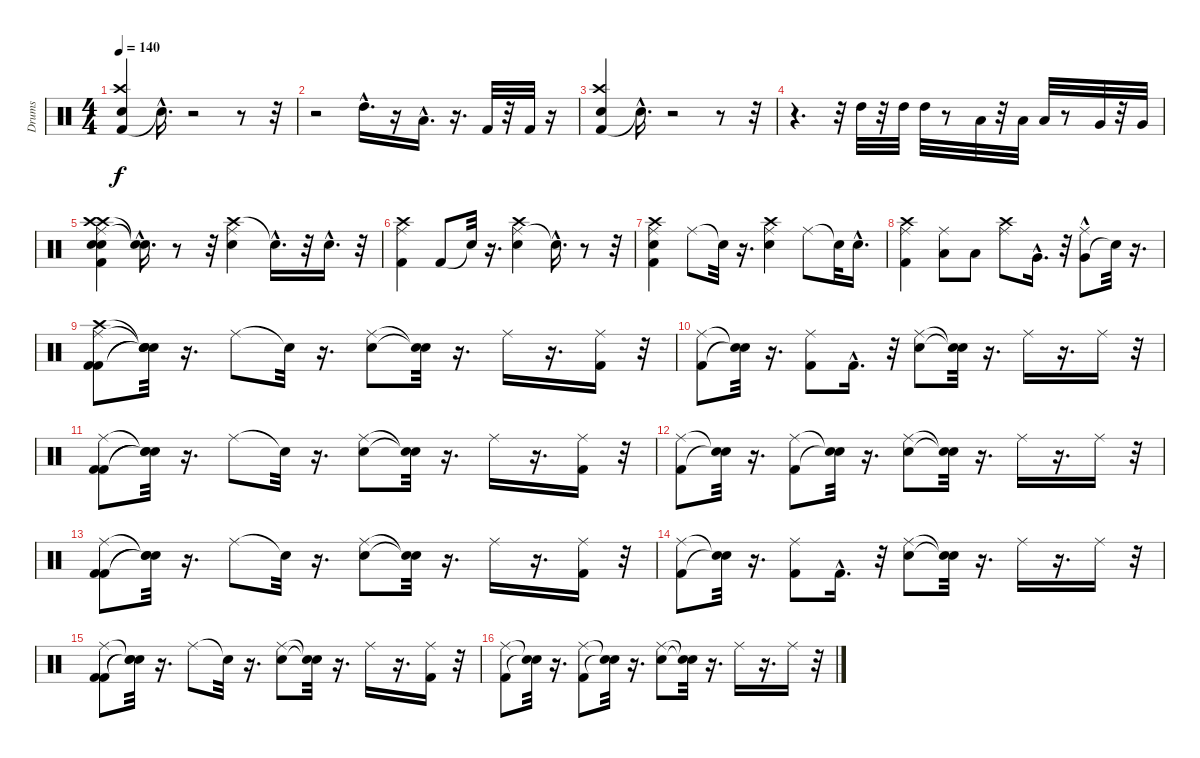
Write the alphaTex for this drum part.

\track ("Drums" "Drums") {instrument percussion}
\staff {score}
\articulation defaults
\ts (4 4)
\tempo 140
\clef neutral
\ks c
("Kick (hit) 2" "Crash high (hit)" "Snare (hit) 2").4{dy f} "Snare (hit)"{hac t}.16{d} r.2 r.8 r.32 |
r.2 "High Tom (hit)"{hac}.16{d} r.16 "Low Tom (hit)"{hac}.16{d} r.16{d} "Kick (hit) 2".32 r.32 "Kick (hit) 2".32 r.16 |
("Kick (hit) 2" "Crash high (hit)" "Snare (hit) 2").4 "Snare (hit)"{hac t}.16{d} r.2 r.8 r.32 |
r.4{d} r.32 "High Tom (hit)".32 r.32 "High Tom (hit)".32 "High Tom (hit)".32 r.8 "Low Tom (hit)".32 r.32 "Low Tom (hit)".32 "Low Tom (hit)".32 r.8 "Very Low Tom (hit)".32 r.32 "Very Low Tom (hit)".32 |
("Ride (middle)" "Crash high (hit)" "Snare (hit) 2" "Snare (hit) 2" "Kick (hit) 2" "Crash high (hit)").4 ("Snare (hit)"{hac t} "Snare (hit)"{hac t}).16{d} r.8 r.32 ("Crash high (hit)" "Ride (middle)" "Snare (hit) 2").4 "Snare (hit)"{hac t}.16{d} r.32 "Snare (hit) 2"{hac}.16{d} r.32 |
("Kick (hit) 2" "Crash high (hit)" "Ride (middle)").4 "Kick (hit) 2".8 "Snare (hit)"{t}.32 r.16{d} ("Ride (middle)" "Snare (hit) 2" "Crash high (hit)").4 "Snare (hit)"{hac t}.16{d} r.8 r.32 |
("Ride (middle)" "Kick (hit) 2" "Crash high (hit)" "Snare (hit) 2").4 "Ride (middle)".8 "Snare (hit)"{t}.32 r.16{d} ("Ride (middle)" "Crash high (hit)" "Snare (hit) 2").4 "Ride (middle)".8 "Snare (hit)"{t}.32 "Snare (hit) 2"{hac}.16{d} |
("Kick (hit) 2" "Crash high (hit)" "Ride (middle)").4 ("Low Tom (hit)" "Ride (middle)").8 "Low Tom (hit)".8 ("Ride (middle)" "Crash high (hit)").8 "Very Low Tom (hit)"{hac}.16{d} r.32 ("Very Low Tom (hit)"{hac} "Ride (middle)").8 "Snare (hit)"{t}.32 r.16{d} |
("Kick (hit) 2" "Kick (hit) 2" "Ride (middle)" "Crash high (hit)").8 ("Snare (hit)"{t} "Snare (hit)"{t} "Snare (hit)"{t} "Snare (hit)"{t}).32 r.16{d} "Ride (middle)".8 "Snare (hit)"{t}.32 r.16{d} ("Snare (hit) 2" "Ride (middle)").8 ("Snare (hit)"{t} "Snare (hit)"{t}).32 r.16{d} "Ride (middle)".16 r.16{d} ("Kick (hit) 2" "Ride (middle)").16 r.32 |
("Ride (middle)" "Kick (hit) 2").8 ("Snare (hit)"{t} "Snare (hit)"{t}).32 r.16{d} ("Ride (middle)" "Kick (hit) 2").8 "Kick (hit) 2"{hac}.16{d} r.32 ("Snare (hit) 2" "Ride (middle)").8 ("Snare (hit)"{t} "Snare (hit)"{t}).32 r.16{d} "Ride (middle)".16 r.16{d} "Ride (middle)".16 r.32 |
("Ride (middle)" "Kick (hit) 2" "Kick (hit) 2").8 ("Snare (hit)"{t} "Snare (hit)"{t} "Snare (hit)"{t}).32 r.16{d} "Ride (middle)".8 "Snare (hit)"{t}.32 r.16{d} ("Snare (hit) 2" "Ride (middle)").8 ("Snare (hit)"{t} "Snare (hit)"{t}).32 r.16{d} "Ride (middle)".16 r.16{d} ("Ride (middle)" "Kick (hit) 2").16 r.32 |
("Ride (middle)" "Kick (hit) 2").8 ("Snare (hit)"{t} "Snare (hit)"{t}).32 r.16{d} ("Ride (middle)" "Kick (hit) 2").8 ("Snare (hit)"{t} "Snare (hit)"{t}).32 r.16{d} ("Ride (middle)" "Snare (hit) 2").8 ("Snare (hit)"{t} "Snare (hit)"{t}).32 r.16{d} "Ride (middle)".16 r.16{d} "Ride (middle)".16 r.32 |
("Kick (hit) 2" "Ride (middle)" "Kick (hit) 2").8 ("Snare (hit)"{t} "Snare (hit)"{t} "Snare (hit)"{t}).32 r.16{d} "Ride (middle)".8 "Snare (hit)"{t}.32 r.16{d} ("Ride (middle)" "Snare (hit) 2").8 ("Snare (hit)"{t} "Snare (hit)"{t}).32 r.16{d} "Ride (middle)".16 r.16{d} ("Ride (middle)" "Kick (hit) 2").16 r.32 |
("Kick (hit) 2" "Ride (middle)").8 ("Snare (hit)"{t} "Snare (hit)"{t}).32 r.16{d} ("Ride (middle)" "Kick (hit) 2").8 "Kick (hit) 2"{hac}.16{d} r.32 ("Snare (hit) 2" "Ride (middle)").8 ("Snare (hit)"{t} "Snare (hit)"{t}).32 r.16{d} "Ride (middle)".16 r.16{d} "Ride (middle)".16 r.32 |
("Kick (hit) 2" "Ride (middle)" "Kick (hit) 2").8 ("Snare (hit)"{t} "Snare (hit)"{t} "Snare (hit)"{t}).32 r.16{d} "Ride (middle)".8 "Snare (hit)"{t}.32 r.16{d} ("Snare (hit) 2" "Ride (middle)").8 ("Snare (hit)"{t} "Snare (hit)"{t}).32 r.16{d} "Ride (middle)".16 r.16{d} ("Kick (hit) 2" "Ride (middle)").16 r.32 |
("Ride (middle)" "Kick (hit) 2").8 ("Snare (hit)"{t} "Snare (hit)"{t}).32 r.16{d} ("Kick (hit) 2" "Ride (middle)").8 ("Snare (hit)"{t} "Snare (hit)"{t}).32 r.16{d} ("Snare (hit) 2" "Ride (middle)").8 ("Snare (hit)"{t} "Snare (hit)"{t}).32 r.16{d} "Ride (middle)".16 r.16{d} "Ride (middle)".16 r.32
